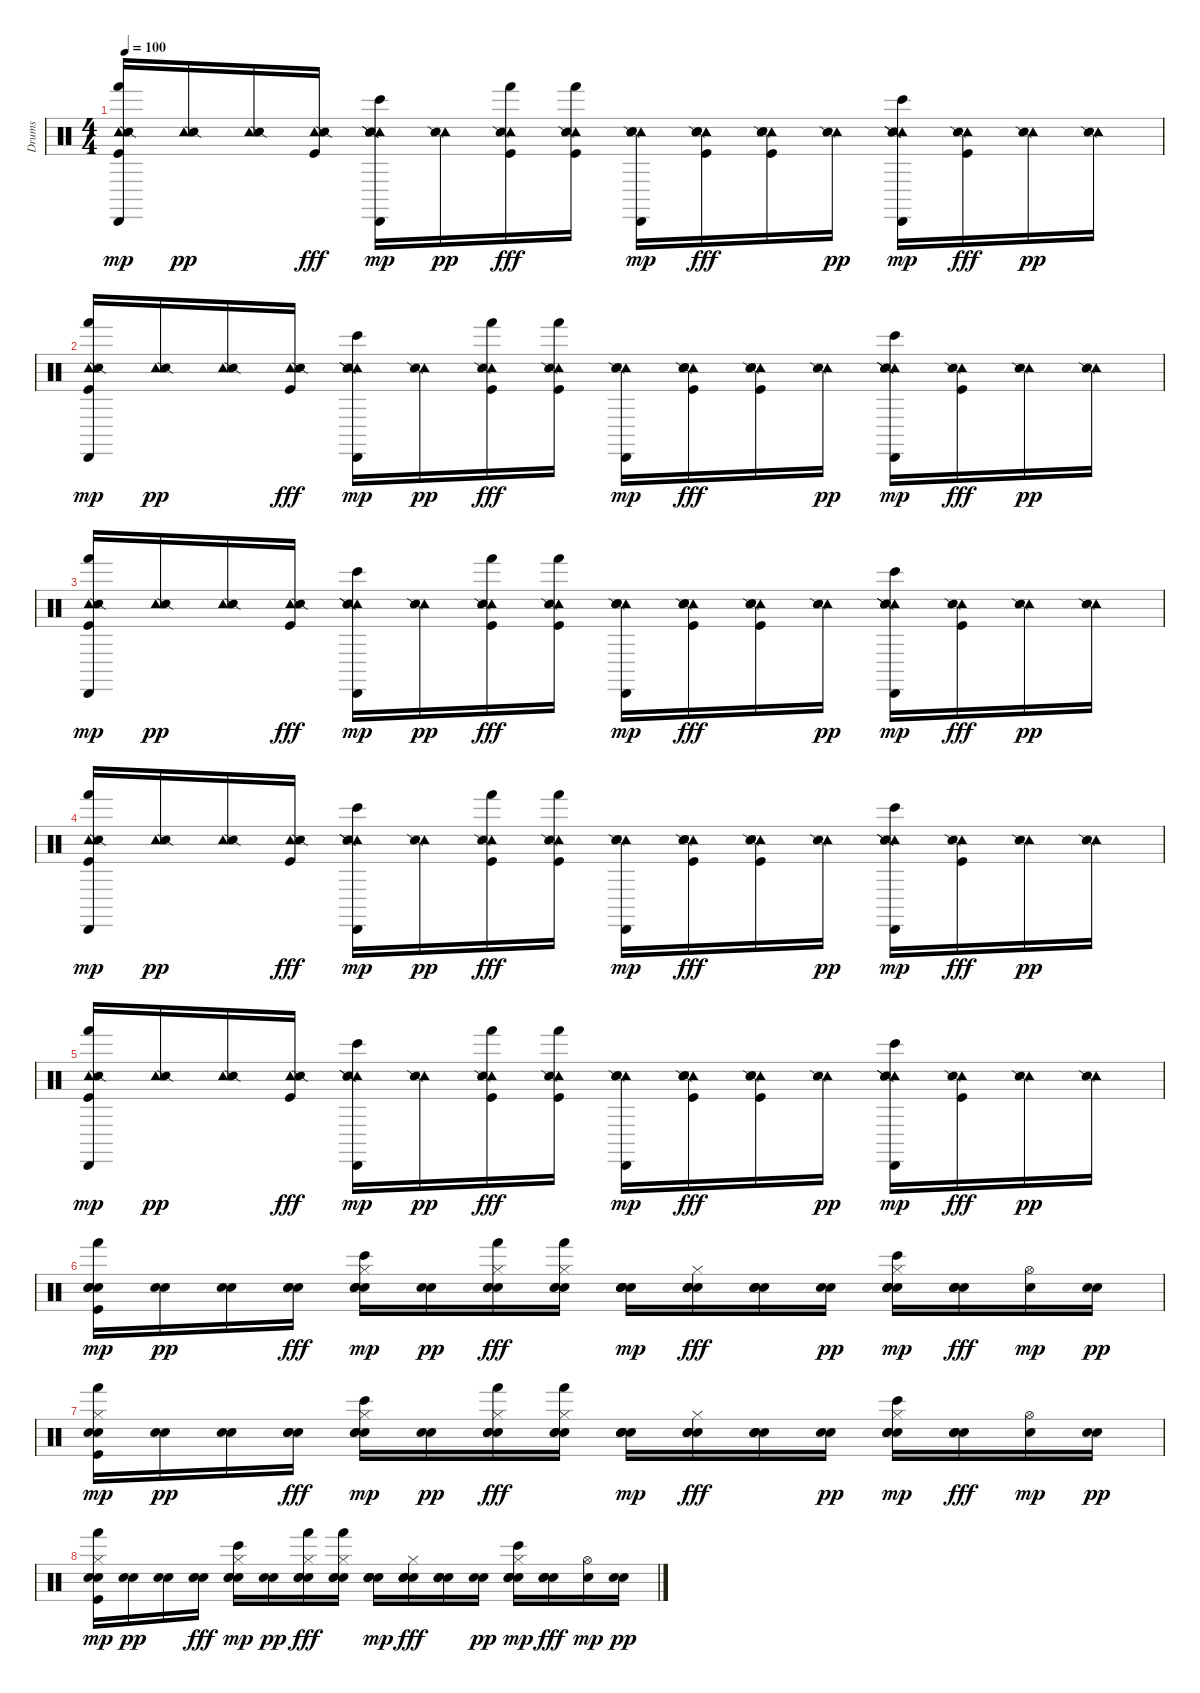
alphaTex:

\track ("Drums" "Drums") {instrument percussion}
\staff {score}
\articulation defaults
\ts (4 4)
\tempo 100
\clef neutral
\ks c
("Tambourine (hit)" "Snare (side stick) 2" "Hand (hit)" "Kick (hit)" "Cabasa (hit)").16{dy mp} ("Tambourine (hit)" "Snare (side stick) 2").16{dy pp} ("Tambourine (hit)" "Snare (side stick) 2").16 ("Tambourine (hit)" "Snare (side stick) 2" "Kick (hit)").16{dy fff} ("Tambourine (hit)" "Snare (side stick) 2" "Bongo High (hit)" "Snare (side stick) 2" "Cabasa (hit)").16{dy mp} ("Tambourine (hit)" "Snare (side stick) 2").16{dy pp} ("Tambourine (hit)" "Snare (side stick) 2" "Hand (hit)" "Kick (hit)").16{dy fff} ("Tambourine (hit)" "Snare (side stick) 2" "Hand (hit)" "Kick (hit)").16 ("Tambourine (hit)" "Snare (side stick) 2" "Snare (hit)" "Cabasa (hit)").16{dy mp} ("Tambourine (hit)" "Snare (side stick) 2" "Snare (hit)" "Kick (hit)").16{dy fff} ("Tambourine (hit)" "Snare (side stick) 2" "Snare (hit)" "Kick (hit)").16 ("Tambourine (hit)" "Snare (side stick) 2").16{dy pp} ("Tambourine (hit)" "Snare (side stick) 2" "Bongo High (hit)" "Snare (side stick) 2" "Cabasa (hit)").16{dy mp} ("Tambourine (hit)" "Snare (side stick) 2" "Kick (hit)").16{dy fff} ("Tambourine (hit)" "Snare (side stick) 2").16{dy pp} ("Tambourine (hit)" "Snare (side stick) 2").16 |
("Tambourine (hit)" "Snare (side stick) 2" "Hand (hit)" "Kick (hit)" "Cabasa (hit)").16{dy mp} ("Tambourine (hit)" "Snare (side stick) 2").16{dy pp} ("Tambourine (hit)" "Snare (side stick) 2").16 ("Tambourine (hit)" "Snare (side stick) 2" "Kick (hit)").16{dy fff} ("Tambourine (hit)" "Snare (side stick) 2" "Bongo High (hit)" "Snare (side stick) 2" "Cabasa (hit)").16{dy mp} ("Tambourine (hit)" "Snare (side stick) 2").16{dy pp} ("Tambourine (hit)" "Snare (side stick) 2" "Hand (hit)" "Kick (hit)").16{dy fff} ("Tambourine (hit)" "Snare (side stick) 2" "Hand (hit)" "Kick (hit)").16 ("Tambourine (hit)" "Snare (side stick) 2" "Snare (hit)" "Cabasa (hit)").16{dy mp} ("Tambourine (hit)" "Snare (side stick) 2" "Snare (hit)" "Kick (hit)").16{dy fff} ("Tambourine (hit)" "Snare (side stick) 2" "Snare (hit)" "Kick (hit)").16 ("Tambourine (hit)" "Snare (side stick) 2").16{dy pp} ("Tambourine (hit)" "Snare (side stick) 2" "Bongo High (hit)" "Snare (side stick) 2" "Cabasa (hit)").16{dy mp} ("Tambourine (hit)" "Snare (side stick) 2" "Kick (hit)").16{dy fff} ("Tambourine (hit)" "Snare (side stick) 2").16{dy pp} ("Tambourine (hit)" "Snare (side stick) 2").16 |
("Tambourine (hit)" "Snare (side stick) 2" "Hand (hit)" "Kick (hit)" "Cabasa (hit)").16{dy mp} ("Tambourine (hit)" "Snare (side stick) 2").16{dy pp} ("Tambourine (hit)" "Snare (side stick) 2").16 ("Tambourine (hit)" "Snare (side stick) 2" "Kick (hit)").16{dy fff} ("Tambourine (hit)" "Snare (side stick) 2" "Bongo High (hit)" "Snare (side stick) 2" "Cabasa (hit)").16{dy mp} ("Tambourine (hit)" "Snare (side stick) 2").16{dy pp} ("Tambourine (hit)" "Snare (side stick) 2" "Hand (hit)" "Kick (hit)").16{dy fff} ("Tambourine (hit)" "Snare (side stick) 2" "Hand (hit)" "Kick (hit)").16 ("Tambourine (hit)" "Snare (side stick) 2" "Snare (hit)" "Cabasa (hit)").16{dy mp} ("Tambourine (hit)" "Snare (side stick) 2" "Snare (hit)" "Kick (hit)").16{dy fff} ("Tambourine (hit)" "Snare (side stick) 2" "Snare (hit)" "Kick (hit)").16 ("Tambourine (hit)" "Snare (side stick) 2").16{dy pp} ("Tambourine (hit)" "Snare (side stick) 2" "Bongo High (hit)" "Snare (side stick) 2" "Cabasa (hit)").16{dy mp} ("Tambourine (hit)" "Snare (side stick) 2" "Kick (hit)").16{dy fff} ("Tambourine (hit)" "Snare (side stick) 2").16{dy pp} ("Tambourine (hit)" "Snare (side stick) 2").16 |
("Tambourine (hit)" "Snare (side stick) 2" "Hand (hit)" "Kick (hit)" "Cabasa (hit)").16{dy mp} ("Tambourine (hit)" "Snare (side stick) 2").16{dy pp} ("Tambourine (hit)" "Snare (side stick) 2").16 ("Tambourine (hit)" "Snare (side stick) 2" "Kick (hit)").16{dy fff} ("Tambourine (hit)" "Snare (side stick) 2" "Bongo High (hit)" "Snare (side stick) 2" "Cabasa (hit)").16{dy mp} ("Tambourine (hit)" "Snare (side stick) 2").16{dy pp} ("Tambourine (hit)" "Snare (side stick) 2" "Hand (hit)" "Kick (hit)").16{dy fff} ("Tambourine (hit)" "Snare (side stick) 2" "Hand (hit)" "Kick (hit)").16 ("Tambourine (hit)" "Snare (side stick) 2" "Snare (hit)" "Cabasa (hit)").16{dy mp} ("Tambourine (hit)" "Snare (side stick) 2" "Snare (hit)" "Kick (hit)").16{dy fff} ("Tambourine (hit)" "Snare (side stick) 2" "Snare (hit)" "Kick (hit)").16 ("Tambourine (hit)" "Snare (side stick) 2").16{dy pp} ("Tambourine (hit)" "Snare (side stick) 2" "Bongo High (hit)" "Snare (side stick) 2" "Cabasa (hit)").16{dy mp} ("Tambourine (hit)" "Snare (side stick) 2" "Kick (hit)").16{dy fff} ("Tambourine (hit)" "Snare (side stick) 2").16{dy pp} ("Tambourine (hit)" "Snare (side stick) 2").16 |
("Tambourine (hit)" "Snare (side stick) 2" "Hand (hit)" "Kick (hit)" "Cabasa (hit)").16{dy mp} ("Tambourine (hit)" "Snare (side stick) 2").16{dy pp} ("Tambourine (hit)" "Snare (side stick) 2").16 ("Tambourine (hit)" "Snare (side stick) 2" "Kick (hit)").16{dy fff} ("Tambourine (hit)" "Snare (side stick) 2" "Bongo High (hit)" "Snare (side stick) 2" "Cabasa (hit)").16{dy mp} ("Tambourine (hit)" "Snare (side stick) 2").16{dy pp} ("Tambourine (hit)" "Snare (side stick) 2" "Hand (hit)" "Kick (hit)").16{dy fff} ("Tambourine (hit)" "Snare (side stick) 2" "Hand (hit)" "Kick (hit)").16 ("Tambourine (hit)" "Snare (side stick) 2" "Snare (hit)" "Cabasa (hit)").16{dy mp} ("Tambourine (hit)" "Snare (side stick) 2" "Snare (hit)" "Kick (hit)").16{dy fff} ("Tambourine (hit)" "Snare (side stick) 2" "Snare (hit)" "Kick (hit)").16 ("Tambourine (hit)" "Snare (side stick) 2").16{dy pp} ("Tambourine (hit)" "Snare (side stick) 2" "Bongo High (hit)" "Snare (side stick) 2" "Cabasa (hit)").16{dy mp} ("Tambourine (hit)" "Snare (side stick) 2" "Kick (hit)").16{dy fff} ("Tambourine (hit)" "Snare (side stick) 2").16{dy pp} ("Tambourine (hit)" "Snare (side stick) 2").16 |
("Snare (hit)" "Snare (hit)" "Hand (hit)" "Kick (hit)" "Snare (hit)").16{dy mp} ("Snare (hit)" "Snare (hit)").16{dy pp} ("Snare (hit)" "Snare (hit)").16 ("Snare (hit)" "Snare (hit)" "Snare (hit)").16{dy fff} ("Snare (hit)" "Snare (hit)" "Bongo High (hit)" "Hi-Hat (closed)" "Snare (hit)" "Snare (hit)").16{dy mp} ("Snare (hit)" "Snare (hit)").16{dy pp} ("Snare (hit)" "Snare (hit)" "Hand (hit)" "Hi-Hat (closed)" "Snare (hit)").16{dy fff} ("Snare (hit)" "Snare (hit)" "Hand (hit)" "Hi-Hat (closed)" "Snare (hit)").16 ("Snare (hit)" "Snare (hit)" "Snare (hit)" "Snare (hit)").16{dy mp} ("Snare (hit)" "Snare (hit)" "Snare (hit)" "Hi-Hat (closed)" "Snare (hit)").16{dy fff} ("Snare (hit)" "Snare (hit)" "Snare (hit)" "Snare (hit)").16 ("Snare (hit)" "Snare (hit)").16{dy pp} ("Snare (hit)" "Snare (hit)" "Bongo High (hit)" "Hi-Hat (closed)" "Snare (hit)" "Snare (hit)").16{dy mp} ("Snare (hit)" "Snare (hit)" "Snare (hit)" "Snare (hit)").16{dy fff} ("Snare (hit)" "Hi-Hat (open)").16{dy mp} ("Snare (hit)" "Snare (hit)").16{dy pp} |
("Snare (hit)" "Hi-Hat (closed)" "Hand (hit)" "Kick (hit)" "Snare (hit)").16{dy mp} ("Snare (hit)" "Snare (hit)").16{dy pp} ("Snare (hit)" "Snare (hit)").16 ("Snare (hit)" "Snare (hit)" "Snare (hit)").16{dy fff} ("Snare (hit)" "Snare (hit)" "Bongo High (hit)" "Hi-Hat (closed)" "Snare (hit)").16{dy mp} ("Snare (hit)" "Snare (hit)").16{dy pp} ("Snare (hit)" "Snare (hit)" "Hand (hit)" "Hi-Hat (closed)" "Snare (hit)").16{dy fff} ("Snare (hit)" "Snare (hit)" "Hand (hit)" "Hi-Hat (closed)" "Snare (hit)").16 ("Snare (hit)" "Snare (hit)" "Snare (hit)" "Snare (hit)").16{dy mp} ("Snare (hit)" "Snare (hit)" "Snare (hit)" "Hi-Hat (closed)" "Snare (hit)").16{dy fff} ("Snare (hit)" "Snare (hit)" "Snare (hit)" "Snare (hit)").16 ("Snare (hit)" "Snare (hit)").16{dy pp} ("Snare (hit)" "Snare (hit)" "Bongo High (hit)" "Hi-Hat (closed)" "Snare (hit)" "Snare (hit)").16{dy mp} ("Snare (hit)" "Snare (hit)" "Snare (hit)" "Snare (hit)").16{dy fff} ("Snare (hit)" "Hi-Hat (open)").16{dy mp} ("Snare (hit)" "Snare (hit)").16{dy pp} |
("Snare (hit)" "Hi-Hat (closed)" "Hand (hit)" "Kick (hit)" "Snare (hit)").16{dy mp} ("Snare (hit)" "Snare (hit)").16{dy pp} ("Snare (hit)" "Snare (hit)").16 ("Snare (hit)" "Snare (hit)" "Snare (hit)").16{dy fff} ("Snare (hit)" "Snare (hit)" "Bongo High (hit)" "Hi-Hat (closed)" "Snare (hit)").16{dy mp} ("Snare (hit)" "Snare (hit)").16{dy pp} ("Snare (hit)" "Snare (hit)" "Hand (hit)" "Hi-Hat (closed)" "Snare (hit)").16{dy fff} ("Snare (hit)" "Snare (hit)" "Hand (hit)" "Hi-Hat (closed)" "Snare (hit)").16 ("Snare (hit)" "Snare (hit)" "Snare (hit)" "Snare (hit)").16{dy mp} ("Snare (hit)" "Snare (hit)" "Snare (hit)" "Hi-Hat (closed)" "Snare (hit)").16{dy fff} ("Snare (hit)" "Snare (hit)" "Snare (hit)" "Snare (hit)").16 ("Snare (hit)" "Snare (hit)").16{dy pp} ("Snare (hit)" "Snare (hit)" "Bongo High (hit)" "Hi-Hat (closed)" "Snare (hit)" "Snare (hit)").16{dy mp} ("Snare (hit)" "Snare (hit)" "Snare (hit)" "Snare (hit)").16{dy fff} ("Snare (hit)" "Hi-Hat (open)").16{dy mp} ("Snare (hit)" "Snare (hit)").16{dy pp}
